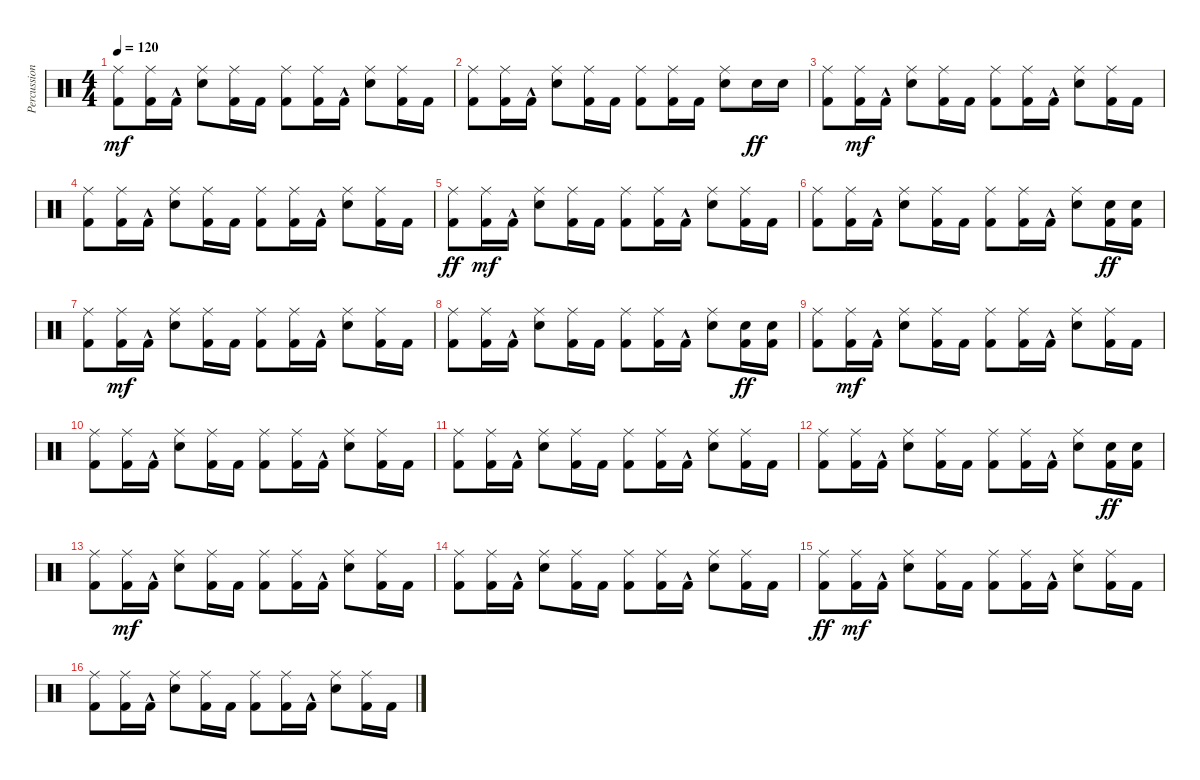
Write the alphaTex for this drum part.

\track ("Percussioni" "Percussion") {instrument percussion}
\staff {score}
\articulation defaults
\ts (4 4)
\tempo 120
\clef neutral
\ks c
("Kick (hit) 2" "Ride (middle)").8{dy mf} ("Kick (hit) 2" "Ride (middle)").16 "Kick (hit) 2"{hac}.16 ("Snare (hit) 2" "Ride (middle)").8 ("Kick (hit) 2" "Ride (middle)").16 "Kick (hit) 2".16 ("Kick (hit) 2" "Ride (middle)").8 ("Kick (hit) 2" "Ride (middle)").16 "Kick (hit) 2"{hac}.16 ("Snare (hit) 2" "Ride (middle)").8 ("Kick (hit) 2" "Ride (middle)").16 "Kick (hit) 2".16 |
("Kick (hit) 2" "Ride (middle)").8 ("Kick (hit) 2" "Ride (middle)").16 "Kick (hit) 2"{hac}.16 ("Snare (hit) 2" "Ride (middle)").8 ("Kick (hit) 2" "Ride (middle)").16 "Kick (hit) 2".16 ("Kick (hit) 2" "Ride (middle)").8 ("Kick (hit) 2" "Ride (middle)").16 "Kick (hit) 2".16 ("Snare (hit) 2" "Ride (middle)").8 "Snare (hit) 2".16{dy ff} "Snare (hit) 2".16 |
("Kick (hit) 2" "Ride (middle)").8 ("Kick (hit) 2" "Ride (middle)").16{dy mf} "Kick (hit) 2"{hac}.16 ("Snare (hit) 2" "Ride (middle)").8 ("Kick (hit) 2" "Ride (middle)").16 "Kick (hit) 2".16 ("Kick (hit) 2" "Ride (middle)").8 ("Kick (hit) 2" "Ride (middle)").16 "Kick (hit) 2"{hac}.16 ("Snare (hit) 2" "Ride (middle)").8 ("Kick (hit) 2" "Ride (middle)").16 "Kick (hit) 2".16 |
("Kick (hit) 2" "Ride (middle)").8 ("Kick (hit) 2" "Ride (middle)").16 "Kick (hit) 2"{hac}.16 ("Snare (hit) 2" "Ride (middle)").8 ("Kick (hit) 2" "Ride (middle)").16 "Kick (hit) 2".16 ("Kick (hit) 2" "Ride (middle)").8 ("Kick (hit) 2" "Ride (middle)").16 "Kick (hit) 2"{hac}.16 ("Snare (hit) 2" "Ride (middle)").8 ("Kick (hit) 2" "Ride (middle)").16 "Kick (hit) 2".16 |
("Kick (hit) 2" "Ride (middle)").8{dy ff} ("Kick (hit) 2" "Ride (middle)").16{dy mf} "Kick (hit) 2"{hac}.16 ("Snare (hit) 2" "Ride (middle)").8 ("Kick (hit) 2" "Ride (middle)").16 "Kick (hit) 2".16 ("Kick (hit) 2" "Ride (middle)").8 ("Kick (hit) 2" "Ride (middle)").16 "Kick (hit) 2"{hac}.16 ("Snare (hit) 2" "Ride (middle)").8 ("Kick (hit) 2" "Ride (middle)").16 "Kick (hit) 2".16 |
("Kick (hit) 2" "Ride (middle)").8 ("Kick (hit) 2" "Ride (middle)").16 "Kick (hit) 2"{hac}.16 ("Snare (hit) 2" "Ride (middle)").8 ("Kick (hit) 2" "Ride (middle)").16 "Kick (hit) 2".16 ("Kick (hit) 2" "Ride (middle)").8 ("Kick (hit) 2" "Ride (middle)").16 "Kick (hit) 2"{hac}.16 ("Snare (hit) 2" "Ride (middle)").8 ("Kick (hit) 2" "Snare (hit) 2").16{dy ff} ("Kick (hit) 2" "Snare (hit) 2").16 |
("Kick (hit) 2" "Ride (middle)").8 ("Kick (hit) 2" "Ride (middle)").16{dy mf} "Kick (hit) 2"{hac}.16 ("Snare (hit) 2" "Ride (middle)").8 ("Kick (hit) 2" "Ride (middle)").16 "Kick (hit) 2".16 ("Kick (hit) 2" "Ride (middle)").8 ("Kick (hit) 2" "Ride (middle)").16 "Kick (hit) 2"{hac}.16 ("Snare (hit) 2" "Ride (middle)").8 ("Kick (hit) 2" "Ride (middle)").16 "Kick (hit) 2".16 |
("Kick (hit) 2" "Ride (middle)").8 ("Kick (hit) 2" "Ride (middle)").16 "Kick (hit) 2"{hac}.16 ("Snare (hit) 2" "Ride (middle)").8 ("Kick (hit) 2" "Ride (middle)").16 "Kick (hit) 2".16 ("Kick (hit) 2" "Ride (middle)").8 ("Kick (hit) 2" "Ride (middle)").16 "Kick (hit) 2"{hac}.16 ("Snare (hit) 2" "Ride (middle)").8 ("Kick (hit) 2" "Snare (hit) 2").16{dy ff} ("Kick (hit) 2" "Snare (hit) 2").16 |
("Kick (hit) 2" "Ride (middle)").8 ("Kick (hit) 2" "Ride (middle)").16{dy mf} "Kick (hit) 2"{hac}.16 ("Snare (hit) 2" "Ride (middle)").8 ("Kick (hit) 2" "Ride (middle)").16 "Kick (hit) 2".16 ("Kick (hit) 2" "Ride (middle)").8 ("Kick (hit) 2" "Ride (middle)").16 "Kick (hit) 2"{hac}.16 ("Snare (hit) 2" "Ride (middle)").8 ("Kick (hit) 2" "Ride (middle)").16 "Kick (hit) 2".16 |
("Kick (hit) 2" "Ride (middle)").8 ("Kick (hit) 2" "Ride (middle)").16 "Kick (hit) 2"{hac}.16 ("Snare (hit) 2" "Ride (middle)").8 ("Kick (hit) 2" "Ride (middle)").16 "Kick (hit) 2".16 ("Kick (hit) 2" "Ride (middle)").8 ("Kick (hit) 2" "Ride (middle)").16 "Kick (hit) 2"{hac}.16 ("Snare (hit) 2" "Ride (middle)").8 ("Kick (hit) 2" "Ride (middle)").16 "Kick (hit) 2".16 |
("Kick (hit) 2" "Ride (middle)").8 ("Kick (hit) 2" "Ride (middle)").16 "Kick (hit) 2"{hac}.16 ("Snare (hit) 2" "Ride (middle)").8 ("Kick (hit) 2" "Ride (middle)").16 "Kick (hit) 2".16 ("Kick (hit) 2" "Ride (middle)").8 ("Kick (hit) 2" "Ride (middle)").16 "Kick (hit) 2"{hac}.16 ("Snare (hit) 2" "Ride (middle)").8 ("Kick (hit) 2" "Ride (middle)").16 "Kick (hit) 2".16 |
("Kick (hit) 2" "Ride (middle)").8 ("Kick (hit) 2" "Ride (middle)").16 "Kick (hit) 2"{hac}.16 ("Snare (hit) 2" "Ride (middle)").8 ("Kick (hit) 2" "Ride (middle)").16 "Kick (hit) 2".16 ("Kick (hit) 2" "Ride (middle)").8 ("Kick (hit) 2" "Ride (middle)").16 "Kick (hit) 2"{hac}.16 ("Snare (hit) 2" "Ride (middle)").8 ("Kick (hit) 2" "Snare (hit) 2").16{dy ff} ("Kick (hit) 2" "Snare (hit) 2").16 |
("Kick (hit) 2" "Ride (middle)").8 ("Kick (hit) 2" "Ride (middle)").16{dy mf} "Kick (hit) 2"{hac}.16 ("Snare (hit) 2" "Ride (middle)").8 ("Kick (hit) 2" "Ride (middle)").16 "Kick (hit) 2".16 ("Kick (hit) 2" "Ride (middle)").8 ("Kick (hit) 2" "Ride (middle)").16 "Kick (hit) 2"{hac}.16 ("Snare (hit) 2" "Ride (middle)").8 ("Kick (hit) 2" "Ride (middle)").16 "Kick (hit) 2".16 |
("Kick (hit) 2" "Ride (middle)").8 ("Kick (hit) 2" "Ride (middle)").16 "Kick (hit) 2"{hac}.16 ("Snare (hit) 2" "Ride (middle)").8 ("Kick (hit) 2" "Ride (middle)").16 "Kick (hit) 2".16 ("Kick (hit) 2" "Ride (middle)").8 ("Kick (hit) 2" "Ride (middle)").16 "Kick (hit) 2"{hac}.16 ("Snare (hit) 2" "Ride (middle)").8 ("Kick (hit) 2" "Ride (middle)").16 "Kick (hit) 2".16 |
("Kick (hit) 2" "Ride (middle)").8{dy ff} ("Kick (hit) 2" "Ride (middle)").16{dy mf} "Kick (hit) 2"{hac}.16 ("Snare (hit) 2" "Ride (middle)").8 ("Kick (hit) 2" "Ride (middle)").16 "Kick (hit) 2".16 ("Kick (hit) 2" "Ride (middle)").8 ("Kick (hit) 2" "Ride (middle)").16 "Kick (hit) 2"{hac}.16 ("Snare (hit) 2" "Ride (middle)").8 ("Kick (hit) 2" "Ride (middle)").16 "Kick (hit) 2".16 |
("Kick (hit) 2" "Ride (middle)").8 ("Kick (hit) 2" "Ride (middle)").16 "Kick (hit) 2"{hac}.16 ("Snare (hit) 2" "Ride (middle)").8 ("Kick (hit) 2" "Ride (middle)").16 "Kick (hit) 2".16 ("Kick (hit) 2" "Ride (middle)").8 ("Kick (hit) 2" "Ride (middle)").16 "Kick (hit) 2"{hac}.16 ("Snare (hit) 2" "Ride (middle)").8 ("Kick (hit) 2" "Ride (middle)").16 "Kick (hit) 2".16
